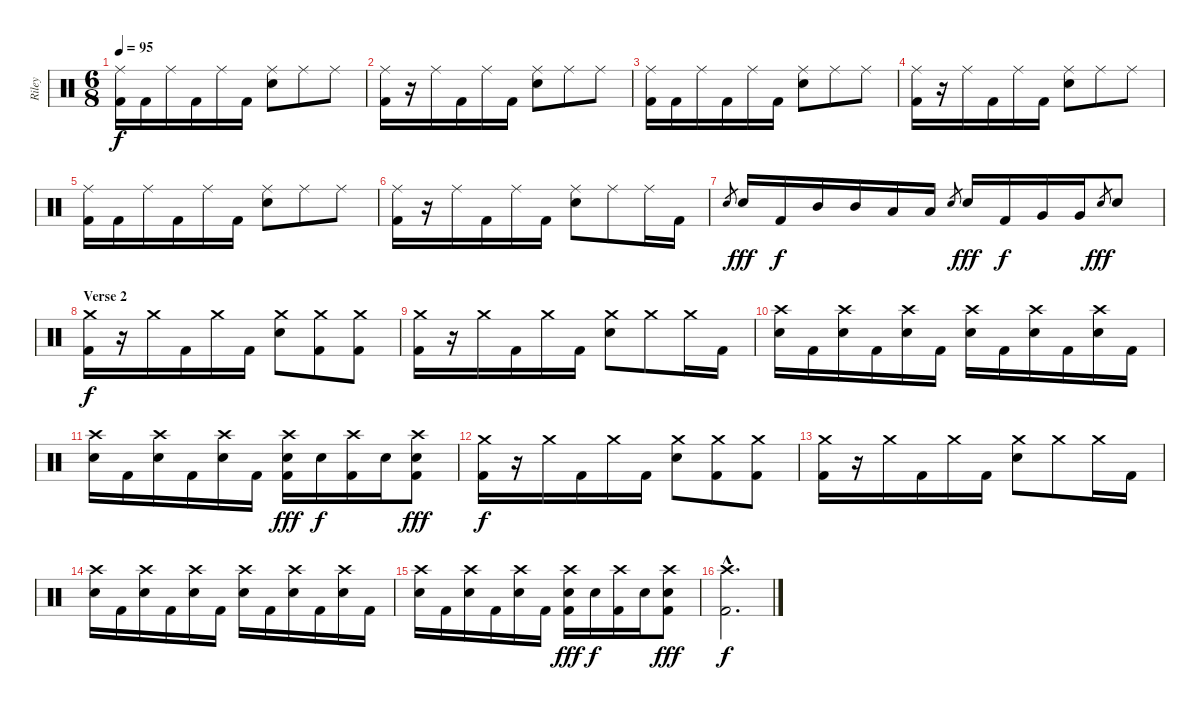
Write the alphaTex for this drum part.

\track ("Riley" "Riley") {instrument percussion}
\staff {score}
\articulation defaults
\ts (6 8)
\tempo 95
\clef neutral
\ks c
("Ride (middle)" "Kick (hit) 2").16{dy f} "Kick (hit) 2".16 "Ride (middle)".16 "Kick (hit) 2".16 "Ride (middle)".16 "Kick (hit) 2".16 ("Ride (middle)" "Electric Snare (hit)").8 "Ride (middle)".8 "Ride (middle)".8 |
("Ride (middle)" "Kick (hit) 2").16 r.16 "Ride (middle)".16 "Kick (hit) 2".16 "Ride (middle)".16 "Kick (hit) 2".16 ("Ride (middle)" "Electric Snare (hit)").8 "Ride (middle)".8 "Ride (middle)".8 |
("Ride (middle)" "Kick (hit) 2").16 "Kick (hit) 2".16 "Ride (middle)".16 "Kick (hit) 2".16 "Ride (middle)".16 "Kick (hit) 2".16 ("Ride (middle)" "Electric Snare (hit)").8 "Ride (middle)".8 "Ride (middle)".8 |
("Ride (middle)" "Kick (hit) 2").16 r.16 "Ride (middle)".16 "Kick (hit) 2".16 "Ride (middle)".16 "Kick (hit) 2".16 ("Ride (middle)" "Electric Snare (hit)").8 "Ride (middle)".8 "Ride (middle)".8 |
("Ride (middle)" "Kick (hit) 2").16 "Kick (hit) 2".16 "Ride (middle)".16 "Kick (hit) 2".16 "Ride (middle)".16 "Kick (hit) 2".16 ("Ride (middle)" "Electric Snare (hit)").8 "Ride (middle)".8 "Ride (middle)".8 |
("Ride (middle)" "Kick (hit) 2").16 r.16 "Ride (middle)".16 "Kick (hit) 2".16 "Ride (middle)".16 "Kick (hit) 2".16 ("Ride (middle)" "Electric Snare (hit)").8 "Ride (middle)".8 "Ride (middle)".16 "Kick (hit) 2".16 |
"Electric Snare (hit)".8{gr} "Electric Snare (hit)".16{dy fff} "Kick (hit) 2".16{dy f} "Mid Tom (hit)".16 "Mid Tom (hit)".16 "Low Tom (hit)".16 "Low Tom (hit)".16 "Electric Snare (hit)".8{gr} "Electric Snare (hit)".16{dy fff} "Kick (hit) 2".16{dy f} "Very Low Tom (hit)".16 "Very Low Tom (hit)".16 "Electric Snare (hit)".8{gr dy fff} "Electric Snare (hit)".8 |
\section ("" "Verse 2")
("Crash medium (hit)" "Kick (hit) 2").16{dy f} r.16 "Crash medium (hit)".16 "Kick (hit) 2".16 "Crash medium (hit)".16 "Kick (hit) 2".16 ("Crash medium (hit)" "Electric Snare (hit)").8 ("Crash medium (hit)" "Kick (hit) 2").8 ("Crash medium (hit)" "Kick (hit) 2").8 |
("Crash medium (hit)" "Kick (hit) 2").16 r.16 "Crash medium (hit)".16 "Kick (hit) 2".16 "Crash medium (hit)".16 "Kick (hit) 2".16 ("Crash medium (hit)" "Electric Snare (hit)").8 "Crash medium (hit)".8 "Crash medium (hit)".16 "Kick (hit) 2".16 |
("Crash high (hit)" "Electric Snare (hit)").16 "Kick (hit) 2".16 ("Crash high (hit)" "Electric Snare (hit)").16 "Kick (hit) 2".16 ("Crash high (hit)" "Electric Snare (hit)").16 "Kick (hit) 2".16 ("Crash high (hit)" "Electric Snare (hit)").16 "Kick (hit) 2".16 ("Crash high (hit)" "Electric Snare (hit)").16 "Kick (hit) 2".16 ("Crash high (hit)" "Electric Snare (hit)").16 "Kick (hit) 2".16 |
("Crash high (hit)" "Electric Snare (hit)").16 "Kick (hit) 2".16 ("Crash high (hit)" "Electric Snare (hit)").16 "Kick (hit) 2".16 ("Crash high (hit)" "Electric Snare (hit)").16 "Kick (hit) 2".16 ("Crash high (hit)" "Electric Snare (hit)" "Kick (hit) 2").16{dy fff} "Electric Snare (hit)".16{dy f} ("Crash high (hit)" "Kick (hit) 2").16 "Electric Snare (hit)".16 ("Crash high (hit)" "Electric Snare (hit)" "Kick (hit) 2").8{dy fff} |
("Crash medium (hit)" "Kick (hit) 2").16{dy f} r.16 "Crash medium (hit)".16 "Kick (hit) 2".16 "Crash medium (hit)".16 "Kick (hit) 2".16 ("Crash medium (hit)" "Electric Snare (hit)").8 ("Crash medium (hit)" "Kick (hit) 2").8 ("Crash medium (hit)" "Kick (hit) 2").8 |
("Crash medium (hit)" "Kick (hit) 2").16 r.16 "Crash medium (hit)".16 "Kick (hit) 2".16 "Crash medium (hit)".16 "Kick (hit) 2".16 ("Crash medium (hit)" "Electric Snare (hit)").8 "Crash medium (hit)".8 "Crash medium (hit)".16 "Kick (hit) 2".16 |
("Crash high (hit)" "Electric Snare (hit)").16 "Kick (hit) 2".16 ("Crash high (hit)" "Electric Snare (hit)").16 "Kick (hit) 2".16 ("Crash high (hit)" "Electric Snare (hit)").16 "Kick (hit) 2".16 ("Crash high (hit)" "Electric Snare (hit)").16 "Kick (hit) 2".16 ("Crash high (hit)" "Electric Snare (hit)").16 "Kick (hit) 2".16 ("Crash high (hit)" "Electric Snare (hit)").16 "Kick (hit) 2".16 |
("Crash high (hit)" "Electric Snare (hit)").16 "Kick (hit) 2".16 ("Crash high (hit)" "Electric Snare (hit)").16 "Kick (hit) 2".16 ("Crash high (hit)" "Electric Snare (hit)").16 "Kick (hit) 2".16 ("Crash high (hit)" "Electric Snare (hit)" "Kick (hit) 2").16{dy fff} "Electric Snare (hit)".16{dy f} ("Crash high (hit)" "Kick (hit) 2").16 "Electric Snare (hit)".16 ("Crash high (hit)" "Electric Snare (hit)" "Kick (hit) 2").8{dy fff} |
("Crash high (hit)"{hac} "Kick (hit) 2"{hac}).2{d dy f}
